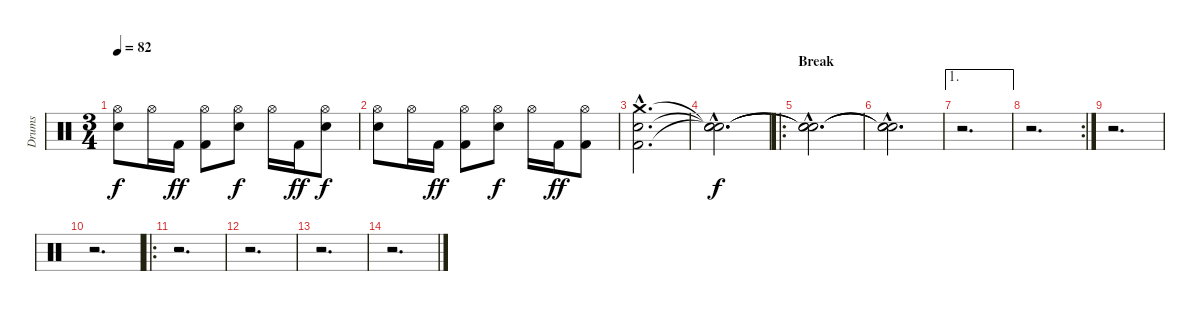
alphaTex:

\track ("Drums" "Drums") {instrument percussion}
\staff {score}
\articulation defaults
\ts (3 4)
\tempo 82
\clef neutral
\ks c
("Hi-Hat (open)" "Electric Snare (hit)").8{dy f} "Hi-Hat (open)".16 "Kick (hit) 2".16{dy ff} ("Hi-Hat (open)" "Kick (hit) 2").8 ("Hi-Hat (open)" "Electric Snare (hit)").8{dy f} "Hi-Hat (open)".16 "Kick (hit) 2".16{dy ff} ("Hi-Hat (open)" "Electric Snare (hit)").8{dy f} |
("Hi-Hat (open)" "Electric Snare (hit)").8 "Hi-Hat (open)".16 "Kick (hit) 2".16{dy ff} ("Hi-Hat (open)" "Kick (hit) 2").8 ("Hi-Hat (open)" "Electric Snare (hit)").8{dy f} "Hi-Hat (open)".16 "Kick (hit) 2".16{dy ff} ("Hi-Hat (open)" "Kick (hit) 2").8 |
("Crash medium (hit)"{hac} "Electric Snare (hit)"{hac} "Kick (hit) 2"{hac}).2{d} |
("Snare (hit)"{hac t} "Snare (hit)"{hac t} "Snare (hit)"{hac t}).2{d dy f} |
\ro
\section ("" "Break")
("Snare (hit)"{hac t} "Snare (hit)"{hac t} "Snare (hit)"{hac t}).2{d} |
("Snare (hit)"{hac t} "Snare (hit)"{hac t} "Snare (hit)"{hac t}).2{d} |
\ae 1
r.2{d} |
\rc 2
r.2{d} |
r.2{d} |
r.2{d} |
\ro
r.2{d} |
r.2{d} |
r.2{d} |
r.2{d}
